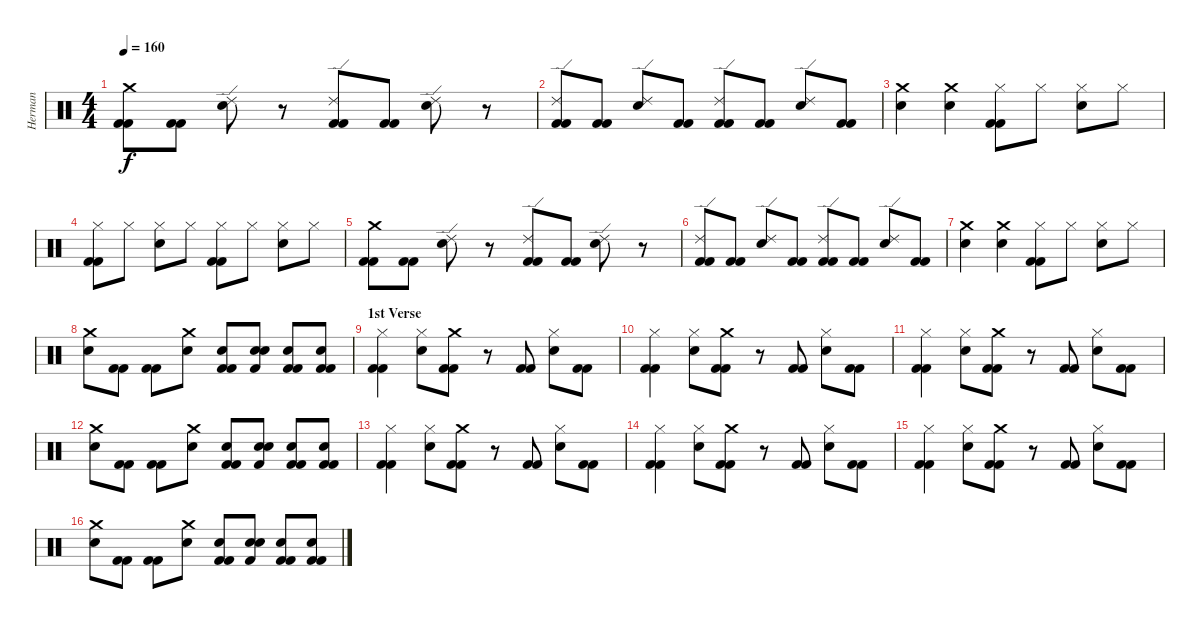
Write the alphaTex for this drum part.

\track ("Herman" "Herman") {instrument percussion}
\staff {score}
\articulation defaults
\ts (4 4)
\tempo 160
\clef neutral
\ks c
("Crash medium (hit)" "Kick (hit) 2" "Kick (hit) 2").8{dy f} ("Kick (hit) 2" "Kick (hit) 2").8 ("Electric Snare (hit)" "Ride (edge) 2").8 r.8 ("Ride (edge) 2" "Kick (hit) 2" "Kick (hit) 2").8 ("Kick (hit) 2" "Kick (hit) 2").8 ("Electric Snare (hit)" "Ride (edge) 2").8 r.8 |
("Kick (hit) 2" "Kick (hit) 2" "Ride (edge) 2").8 ("Kick (hit) 2" "Kick (hit) 2").8 ("Electric Snare (hit)" "Ride (edge) 2").8 ("Kick (hit) 2" "Kick (hit) 2").8 ("Kick (hit) 2" "Kick (hit) 2" "Ride (edge) 2").8 ("Kick (hit) 2" "Kick (hit) 2").8 ("Electric Snare (hit)" "Ride (edge) 2").8 ("Kick (hit) 2" "Kick (hit) 2").8 |
("Crash medium (hit)" "Electric Snare (hit)").4 ("Crash medium (hit)" "Electric Snare (hit)").4 ("Hi-Hat (closed)" "Kick (hit) 2" "Kick (hit) 2").8 "Hi-Hat (closed)".8 ("Electric Snare (hit)" "Hi-Hat (closed)").8 "Hi-Hat (closed)".8 |
("Kick (hit) 2" "Kick (hit) 2" "Hi-Hat (closed)").8 "Hi-Hat (closed)".8 ("Hi-Hat (closed)" "Electric Snare (hit)").8 "Hi-Hat (closed)".8 ("Hi-Hat (closed)" "Kick (hit) 2" "Kick (hit) 2").8 "Hi-Hat (closed)".8 ("Electric Snare (hit)" "Hi-Hat (closed)").8 "Hi-Hat (closed)".8 |
("Crash medium (hit)" "Kick (hit) 2" "Kick (hit) 2").8 ("Kick (hit) 2" "Kick (hit) 2").8 ("Electric Snare (hit)" "Ride (edge) 2").8 r.8 ("Ride (edge) 2" "Kick (hit) 2" "Kick (hit) 2").8 ("Kick (hit) 2" "Kick (hit) 2").8 ("Electric Snare (hit)" "Ride (edge) 2").8 r.8 |
("Kick (hit) 2" "Kick (hit) 2" "Ride (edge) 2").8 ("Kick (hit) 2" "Kick (hit) 2").8 ("Electric Snare (hit)" "Ride (edge) 2").8 ("Kick (hit) 2" "Kick (hit) 2").8 ("Kick (hit) 2" "Kick (hit) 2" "Ride (edge) 2").8 ("Kick (hit) 2" "Kick (hit) 2").8 ("Electric Snare (hit)" "Ride (edge) 2").8 ("Kick (hit) 2" "Kick (hit) 2").8 |
("Crash medium (hit)" "Electric Snare (hit)").4 ("Crash medium (hit)" "Electric Snare (hit)").4 ("Hi-Hat (closed)" "Kick (hit) 2" "Kick (hit) 2").8 "Hi-Hat (closed)".8 ("Electric Snare (hit)" "Hi-Hat (closed)").8 "Hi-Hat (closed)".8 |
("Crash medium (hit)" "Electric Snare (hit)").8 ("Kick (hit) 2" "Kick (hit) 2").8 ("Kick (hit) 2" "Kick (hit) 2").8 ("Crash medium (hit)" "Electric Snare (hit)").8 ("Kick (hit) 2" "Electric Snare (hit)" "Kick (hit) 2").8 ("Electric Snare (hit)" "Electric Snare (hit)" "Kick (hit) 2").8 ("Kick (hit) 2" "Kick (hit) 2" "Electric Snare (hit)").8 ("Electric Snare (hit)" "Kick (hit) 2" "Kick (hit) 2").8 |
\section ("" "1st Verse")
("Hi-Hat (closed)" "Kick (hit) 2" "Kick (hit) 2").4 ("Electric Snare (hit)" "Hi-Hat (closed)").8 ("Crash medium (hit)" "Kick (hit) 2" "Kick (hit) 2").8 r.8 ("Kick (hit) 2" "Kick (hit) 2").8 ("Hi-Hat (closed)" "Electric Snare (hit)").8 ("Kick (hit) 2" "Kick (hit) 2").8 |
("Hi-Hat (closed)" "Kick (hit) 2" "Kick (hit) 2").4 ("Electric Snare (hit)" "Hi-Hat (closed)").8 ("Crash medium (hit)" "Kick (hit) 2" "Kick (hit) 2").8 r.8 ("Kick (hit) 2" "Kick (hit) 2").8 ("Hi-Hat (closed)" "Electric Snare (hit)").8 ("Kick (hit) 2" "Kick (hit) 2").8 |
("Hi-Hat (closed)" "Kick (hit) 2" "Kick (hit) 2").4 ("Electric Snare (hit)" "Hi-Hat (closed)").8 ("Crash medium (hit)" "Kick (hit) 2" "Kick (hit) 2").8 r.8 ("Kick (hit) 2" "Kick (hit) 2").8 ("Hi-Hat (closed)" "Electric Snare (hit)").8 ("Kick (hit) 2" "Kick (hit) 2").8 |
("Crash medium (hit)" "Electric Snare (hit)").8 ("Kick (hit) 2" "Kick (hit) 2").8 ("Kick (hit) 2" "Kick (hit) 2").8 ("Crash medium (hit)" "Electric Snare (hit)").8 ("Kick (hit) 2" "Electric Snare (hit)" "Kick (hit) 2").8 ("Electric Snare (hit)" "Electric Snare (hit)" "Kick (hit) 2").8 ("Kick (hit) 2" "Kick (hit) 2" "Electric Snare (hit)").8 ("Electric Snare (hit)" "Kick (hit) 2" "Kick (hit) 2").8 |
("Hi-Hat (closed)" "Kick (hit) 2" "Kick (hit) 2").4 ("Electric Snare (hit)" "Hi-Hat (closed)").8 ("Crash medium (hit)" "Kick (hit) 2" "Kick (hit) 2").8 r.8 ("Kick (hit) 2" "Kick (hit) 2").8 ("Hi-Hat (closed)" "Electric Snare (hit)").8 ("Kick (hit) 2" "Kick (hit) 2").8 |
("Hi-Hat (closed)" "Kick (hit) 2" "Kick (hit) 2").4 ("Electric Snare (hit)" "Hi-Hat (closed)").8 ("Crash medium (hit)" "Kick (hit) 2" "Kick (hit) 2").8 r.8 ("Kick (hit) 2" "Kick (hit) 2").8 ("Hi-Hat (closed)" "Electric Snare (hit)").8 ("Kick (hit) 2" "Kick (hit) 2").8 |
("Hi-Hat (closed)" "Kick (hit) 2" "Kick (hit) 2").4 ("Electric Snare (hit)" "Hi-Hat (closed)").8 ("Crash medium (hit)" "Kick (hit) 2" "Kick (hit) 2").8 r.8 ("Kick (hit) 2" "Kick (hit) 2").8 ("Hi-Hat (closed)" "Electric Snare (hit)").8 ("Kick (hit) 2" "Kick (hit) 2").8 |
("Crash medium (hit)" "Electric Snare (hit)").8 ("Kick (hit) 2" "Kick (hit) 2").8 ("Kick (hit) 2" "Kick (hit) 2").8 ("Crash medium (hit)" "Electric Snare (hit)").8 ("Kick (hit) 2" "Electric Snare (hit)" "Kick (hit) 2").8 ("Electric Snare (hit)" "Electric Snare (hit)" "Kick (hit) 2").8 ("Kick (hit) 2" "Kick (hit) 2" "Electric Snare (hit)").8 ("Electric Snare (hit)" "Kick (hit) 2" "Kick (hit) 2").8
